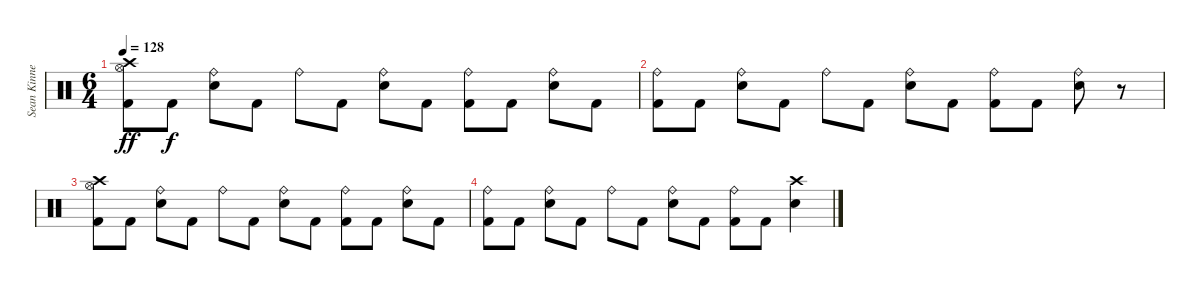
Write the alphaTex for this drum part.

\track ("Sean Kinney (Drums)" "Sean Kinne") {instrument percussion}
\staff {score}
\articulation defaults
\ts (6 4)
\tempo 128
\clef neutral
\ks c
("Kick (hit) 2" "Crash high (hit)" "Hi-Hat (open)").8{dy ff} "Kick (hit) 2".8{dy f} ("Electric Snare (hit)" "Ride (bell)").8 "Kick (hit) 2".8 "Ride (bell)".8 "Kick (hit) 2".8 ("Electric Snare (hit)" "Ride (bell)").8 "Kick (hit) 2".8 ("Kick (hit) 2" "Ride (bell)").8 "Kick (hit) 2".8 ("Electric Snare (hit)" "Ride (bell)").8 "Kick (hit) 2".8 |
("Kick (hit) 2" "Ride (bell)").8 "Kick (hit) 2".8 ("Electric Snare (hit)" "Ride (bell)").8 "Kick (hit) 2".8 "Ride (bell)".8 "Kick (hit) 2".8 ("Electric Snare (hit)" "Ride (bell)").8 "Kick (hit) 2".8 ("Kick (hit) 2" "Ride (bell)").8 "Kick (hit) 2".8 ("Electric Snare (hit)" "Ride (bell)").8 r.8 |
("Kick (hit) 2" "Crash high (hit)" "Hi-Hat (open)").8 "Kick (hit) 2".8 ("Electric Snare (hit)" "Ride (bell)").8 "Kick (hit) 2".8 "Ride (bell)".8 "Kick (hit) 2".8 ("Electric Snare (hit)" "Ride (bell)").8 "Kick (hit) 2".8 ("Kick (hit) 2" "Ride (bell)").8 "Kick (hit) 2".8 ("Electric Snare (hit)" "Ride (bell)").8 "Kick (hit) 2".8 |
("Kick (hit) 2" "Ride (bell)").8 "Kick (hit) 2".8 ("Electric Snare (hit)" "Ride (bell)").8 "Kick (hit) 2".8 "Ride (bell)".8 "Kick (hit) 2".8 ("Electric Snare (hit)" "Ride (bell)").8 "Kick (hit) 2".8 ("Kick (hit) 2" "Ride (bell)").8 "Kick (hit) 2".8 ("Electric Snare (hit)" "Crash high (hit)").4
